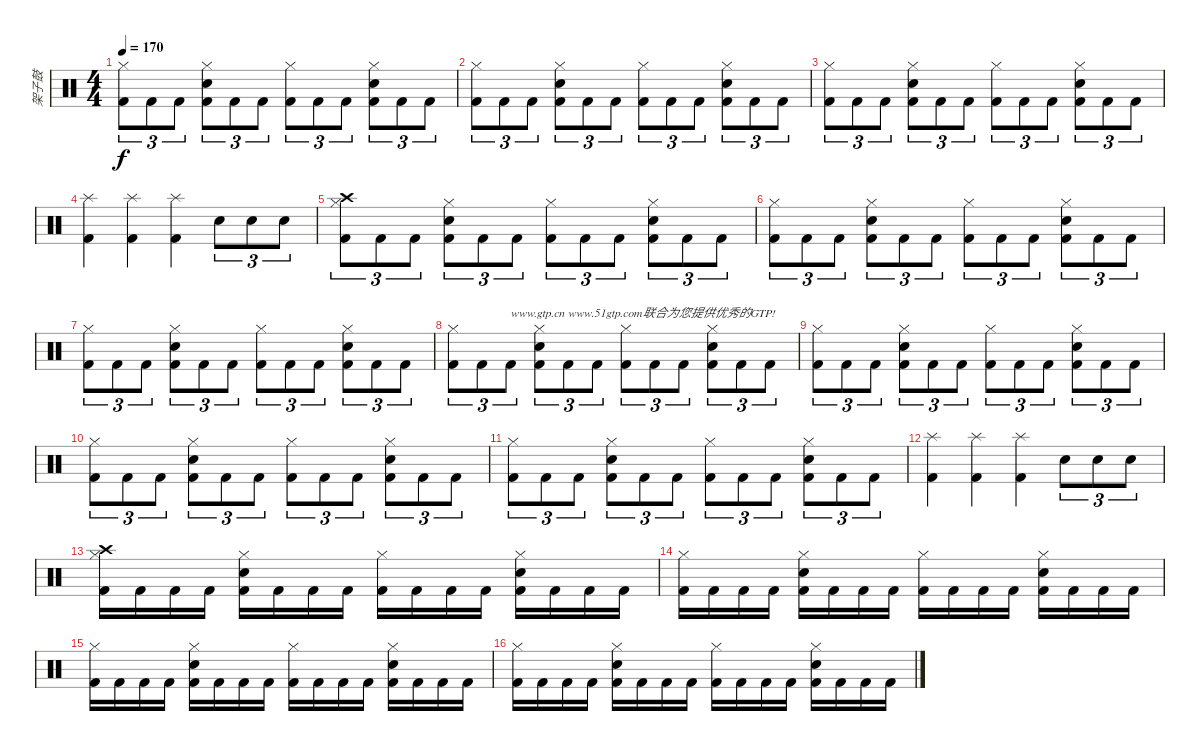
\track ("架子鼓" "架子鼓") {instrument percussion}
\staff {score}
\articulation defaults
\ts (4 4)
\tempo 170
\clef neutral
\ks c
("Hi-Hat (closed)" "Kick (hit) 2").8{tu (3 2) dy f} "Kick (hit) 2".8{tu (3 2)} "Kick (hit) 2".8{tu (3 2)} ("Hi-Hat (closed)" "Snare (hit) 2" "Kick (hit) 2").8{tu (3 2)} "Kick (hit) 2".8{tu (3 2)} "Kick (hit) 2".8{tu (3 2)} ("Hi-Hat (closed)" "Kick (hit) 2").8{tu (3 2)} "Kick (hit) 2".8{tu (3 2)} "Kick (hit) 2".8{tu (3 2)} ("Hi-Hat (closed)" "Snare (hit) 2" "Kick (hit) 2").8{tu (3 2)} "Kick (hit) 2".8{tu (3 2)} "Kick (hit) 2".8{tu (3 2)} |
("Hi-Hat (closed)" "Kick (hit) 2").8{tu (3 2)} "Kick (hit) 2".8{tu (3 2)} "Kick (hit) 2".8{tu (3 2)} ("Hi-Hat (closed)" "Snare (hit) 2" "Kick (hit) 2").8{tu (3 2)} "Kick (hit) 2".8{tu (3 2)} "Kick (hit) 2".8{tu (3 2)} ("Hi-Hat (closed)" "Kick (hit) 2").8{tu (3 2)} "Kick (hit) 2".8{tu (3 2)} "Kick (hit) 2".8{tu (3 2)} ("Hi-Hat (closed)" "Snare (hit) 2" "Kick (hit) 2").8{tu (3 2)} "Kick (hit) 2".8{tu (3 2)} "Kick (hit) 2".8{tu (3 2)} |
("Hi-Hat (closed)" "Kick (hit) 2").8{tu (3 2)} "Kick (hit) 2".8{tu (3 2)} "Kick (hit) 2".8{tu (3 2)} ("Hi-Hat (closed)" "Snare (hit) 2" "Kick (hit) 2").8{tu (3 2)} "Kick (hit) 2".8{tu (3 2)} "Kick (hit) 2".8{tu (3 2)} ("Hi-Hat (closed)" "Kick (hit) 2").8{tu (3 2)} "Kick (hit) 2".8{tu (3 2)} "Kick (hit) 2".8{tu (3 2)} ("Hi-Hat (closed)" "Snare (hit) 2" "Kick (hit) 2").8{tu (3 2)} "Kick (hit) 2".8{tu (3 2)} "Kick (hit) 2".8{tu (3 2)} |
("Kick (hit) 2" "Splash (hit)").4 ("Kick (hit) 2" "Splash (hit)").4 ("Kick (hit) 2" "Splash (hit)").4 "Snare (hit) 2".8{tu (3 2)} "Snare (hit) 2".8{tu (3 2)} "Snare (hit) 2".8{tu (3 2)} |
("Hi-Hat (closed)" "Kick (hit) 2" "Crash high (hit)").8{tu (3 2)} "Kick (hit) 2".8{tu (3 2)} "Kick (hit) 2".8{tu (3 2)} ("Hi-Hat (closed)" "Snare (hit) 2" "Kick (hit) 2").8{tu (3 2)} "Kick (hit) 2".8{tu (3 2)} "Kick (hit) 2".8{tu (3 2)} ("Hi-Hat (closed)" "Kick (hit) 2").8{tu (3 2)} "Kick (hit) 2".8{tu (3 2)} "Kick (hit) 2".8{tu (3 2)} ("Hi-Hat (closed)" "Snare (hit) 2" "Kick (hit) 2").8{tu (3 2)} "Kick (hit) 2".8{tu (3 2)} "Kick (hit) 2".8{tu (3 2)} |
("Hi-Hat (closed)" "Kick (hit) 2").8{tu (3 2)} "Kick (hit) 2".8{tu (3 2)} "Kick (hit) 2".8{tu (3 2)} ("Hi-Hat (closed)" "Snare (hit) 2" "Kick (hit) 2").8{tu (3 2)} "Kick (hit) 2".8{tu (3 2)} "Kick (hit) 2".8{tu (3 2)} ("Hi-Hat (closed)" "Kick (hit) 2").8{tu (3 2)} "Kick (hit) 2".8{tu (3 2)} "Kick (hit) 2".8{tu (3 2)} ("Hi-Hat (closed)" "Snare (hit) 2" "Kick (hit) 2").8{tu (3 2)} "Kick (hit) 2".8{tu (3 2)} "Kick (hit) 2".8{tu (3 2)} |
("Hi-Hat (closed)" "Kick (hit) 2").8{tu (3 2)} "Kick (hit) 2".8{tu (3 2)} "Kick (hit) 2".8{tu (3 2)} ("Hi-Hat (closed)" "Snare (hit) 2" "Kick (hit) 2").8{tu (3 2)} "Kick (hit) 2".8{tu (3 2)} "Kick (hit) 2".8{tu (3 2)} ("Hi-Hat (closed)" "Kick (hit) 2").8{tu (3 2)} "Kick (hit) 2".8{tu (3 2)} "Kick (hit) 2".8{tu (3 2)} ("Hi-Hat (closed)" "Snare (hit) 2" "Kick (hit) 2").8{tu (3 2)} "Kick (hit) 2".8{tu (3 2)} "Kick (hit) 2".8{tu (3 2)} |
("Hi-Hat (closed)" "Kick (hit) 2").8{tu (3 2)} "Kick (hit) 2".8{tu (3 2)} "Kick (hit) 2".8{tu (3 2) txt "www.gtp.cn www.51gtp.com联合为您提供优秀的GTP!"} ("Hi-Hat (closed)" "Snare (hit) 2" "Kick (hit) 2").8{tu (3 2)} "Kick (hit) 2".8{tu (3 2)} "Kick (hit) 2".8{tu (3 2)} ("Hi-Hat (closed)" "Kick (hit) 2").8{tu (3 2)} "Kick (hit) 2".8{tu (3 2)} "Kick (hit) 2".8{tu (3 2)} ("Hi-Hat (closed)" "Snare (hit) 2" "Kick (hit) 2").8{tu (3 2)} "Kick (hit) 2".8{tu (3 2)} "Kick (hit) 2".8{tu (3 2)} |
("Hi-Hat (closed)" "Kick (hit) 2").8{tu (3 2)} "Kick (hit) 2".8{tu (3 2)} "Kick (hit) 2".8{tu (3 2)} ("Hi-Hat (closed)" "Snare (hit) 2" "Kick (hit) 2").8{tu (3 2)} "Kick (hit) 2".8{tu (3 2)} "Kick (hit) 2".8{tu (3 2)} ("Hi-Hat (closed)" "Kick (hit) 2").8{tu (3 2)} "Kick (hit) 2".8{tu (3 2)} "Kick (hit) 2".8{tu (3 2)} ("Hi-Hat (closed)" "Snare (hit) 2" "Kick (hit) 2").8{tu (3 2)} "Kick (hit) 2".8{tu (3 2)} "Kick (hit) 2".8{tu (3 2)} |
("Hi-Hat (closed)" "Kick (hit) 2").8{tu (3 2)} "Kick (hit) 2".8{tu (3 2)} "Kick (hit) 2".8{tu (3 2)} ("Hi-Hat (closed)" "Snare (hit) 2" "Kick (hit) 2").8{tu (3 2)} "Kick (hit) 2".8{tu (3 2)} "Kick (hit) 2".8{tu (3 2)} ("Hi-Hat (closed)" "Kick (hit) 2").8{tu (3 2)} "Kick (hit) 2".8{tu (3 2)} "Kick (hit) 2".8{tu (3 2)} ("Hi-Hat (closed)" "Snare (hit) 2" "Kick (hit) 2").8{tu (3 2)} "Kick (hit) 2".8{tu (3 2)} "Kick (hit) 2".8{tu (3 2)} |
("Hi-Hat (closed)" "Kick (hit) 2").8{tu (3 2)} "Kick (hit) 2".8{tu (3 2)} "Kick (hit) 2".8{tu (3 2)} ("Hi-Hat (closed)" "Snare (hit) 2" "Kick (hit) 2").8{tu (3 2)} "Kick (hit) 2".8{tu (3 2)} "Kick (hit) 2".8{tu (3 2)} ("Hi-Hat (closed)" "Kick (hit) 2").8{tu (3 2)} "Kick (hit) 2".8{tu (3 2)} "Kick (hit) 2".8{tu (3 2)} ("Hi-Hat (closed)" "Snare (hit) 2" "Kick (hit) 2").8{tu (3 2)} "Kick (hit) 2".8{tu (3 2)} "Kick (hit) 2".8{tu (3 2)} |
("Kick (hit) 2" "Splash (hit)").4 ("Kick (hit) 2" "Splash (hit)").4 ("Kick (hit) 2" "Splash (hit)").4 "Snare (hit) 2".8{tu (3 2)} "Snare (hit) 2".8{tu (3 2)} "Snare (hit) 2".8{tu (3 2)} |
("Hi-Hat (closed)" "Kick (hit) 2" "Crash high (hit)").16 "Kick (hit) 2".16 "Kick (hit) 2".16 "Kick (hit) 2".16 ("Hi-Hat (closed)" "Snare (hit) 2" "Kick (hit) 2").16 "Kick (hit) 2".16 "Kick (hit) 2".16 "Kick (hit) 2".16 ("Hi-Hat (closed)" "Kick (hit) 2").16 "Kick (hit) 2".16 "Kick (hit) 2".16 "Kick (hit) 2".16 ("Hi-Hat (closed)" "Snare (hit) 2" "Kick (hit) 2").16 "Kick (hit) 2".16 "Kick (hit) 2".16 "Kick (hit) 2".16 |
("Hi-Hat (closed)" "Kick (hit) 2").16 "Kick (hit) 2".16 "Kick (hit) 2".16 "Kick (hit) 2".16 ("Hi-Hat (closed)" "Snare (hit) 2" "Kick (hit) 2").16 "Kick (hit) 2".16 "Kick (hit) 2".16 "Kick (hit) 2".16 ("Hi-Hat (closed)" "Kick (hit) 2").16 "Kick (hit) 2".16 "Kick (hit) 2".16 "Kick (hit) 2".16 ("Hi-Hat (closed)" "Snare (hit) 2" "Kick (hit) 2").16 "Kick (hit) 2".16 "Kick (hit) 2".16 "Kick (hit) 2".16 |
("Hi-Hat (closed)" "Kick (hit) 2").16 "Kick (hit) 2".16 "Kick (hit) 2".16 "Kick (hit) 2".16 ("Hi-Hat (closed)" "Snare (hit) 2" "Kick (hit) 2").16 "Kick (hit) 2".16 "Kick (hit) 2".16 "Kick (hit) 2".16 ("Hi-Hat (closed)" "Kick (hit) 2").16 "Kick (hit) 2".16 "Kick (hit) 2".16 "Kick (hit) 2".16 ("Hi-Hat (closed)" "Snare (hit) 2" "Kick (hit) 2").16 "Kick (hit) 2".16 "Kick (hit) 2".16 "Kick (hit) 2".16 |
("Hi-Hat (closed)" "Kick (hit) 2").16 "Kick (hit) 2".16 "Kick (hit) 2".16 "Kick (hit) 2".16 ("Hi-Hat (closed)" "Snare (hit) 2" "Kick (hit) 2").16 "Kick (hit) 2".16 "Kick (hit) 2".16 "Kick (hit) 2".16 ("Hi-Hat (closed)" "Kick (hit) 2").16 "Kick (hit) 2".16 "Kick (hit) 2".16 "Kick (hit) 2".16 ("Hi-Hat (closed)" "Snare (hit) 2" "Kick (hit) 2").16 "Kick (hit) 2".16 "Kick (hit) 2".16 "Kick (hit) 2".16
